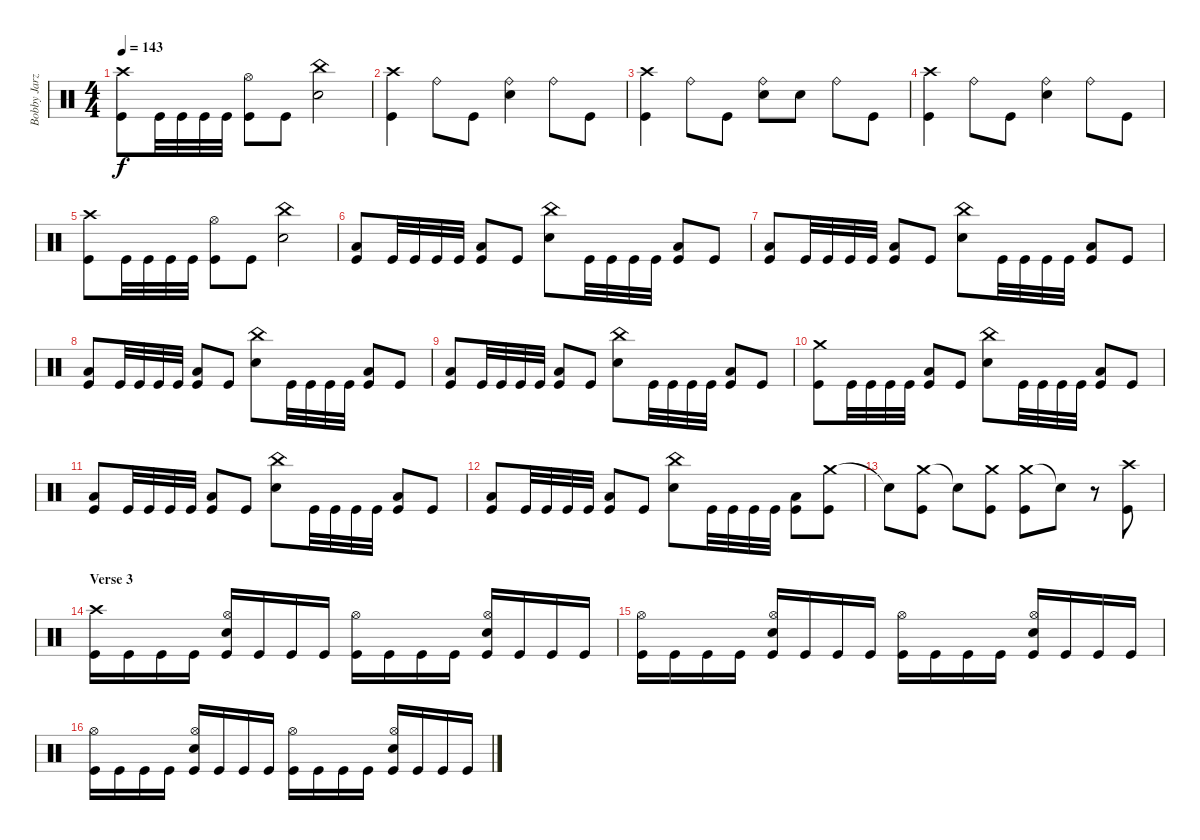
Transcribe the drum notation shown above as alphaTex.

\track ("Bobby Jarzombek" "Bobby Jarz") {instrument percussion}
\staff {score}
\articulation defaults
\ts (4 4)
\tempo 143
\clef neutral
\ks c
("Crash high (hit)" "Kick (hit)").8{dy f} "Kick (hit)".32 "Kick (hit)".32 "Kick (hit)".32 "Kick (hit)".32 ("Hi-Hat (open)" "Kick (hit)").8 "Kick (hit)".8 ("China (hit)" "Electric Snare (hit)").2 |
("Crash high (hit)" "Kick (hit)").4 "Ride (bell)".8 "Kick (hit)".8 ("Ride (bell)" "Electric Snare (hit)").4 "Ride (bell)".8 "Kick (hit)".8 |
("Crash high (hit)" "Kick (hit)").4 "Ride (bell)".8 "Kick (hit)".8 ("Ride (bell)" "Electric Snare (hit)").8 "Electric Snare (hit)".8 "Ride (bell)".8 "Kick (hit)".8 |
("Crash high (hit)" "Kick (hit)").4 "Ride (bell)".8 "Kick (hit)".8 ("Ride (bell)" "Electric Snare (hit)").4 "Ride (bell)".8 "Kick (hit)".8 |
("Crash high (hit)" "Kick (hit)").8 "Kick (hit)".32 "Kick (hit)".32 "Kick (hit)".32 "Kick (hit)".32 ("Hi-Hat (open)" "Kick (hit)").8 "Kick (hit)".8 ("China (hit)" "Electric Snare (hit)").2 |
("Low Tom (hit)" "Kick (hit)").8 "Kick (hit)".32 "Kick (hit)".32 "Kick (hit)".32 "Kick (hit)".32 ("Low Tom (hit)" "Kick (hit)").8 "Kick (hit)".8 ("China (hit)" "Electric Snare (hit)").8 "Kick (hit)".32 "Kick (hit)".32 "Kick (hit)".32 "Kick (hit)".32 ("Low Tom (hit)" "Kick (hit)").8 "Kick (hit)".8 |
("Low Tom (hit)" "Kick (hit)").8 "Kick (hit)".32 "Kick (hit)".32 "Kick (hit)".32 "Kick (hit)".32 ("Low Tom (hit)" "Kick (hit)").8 "Kick (hit)".8 ("China (hit)" "Electric Snare (hit)").8 "Kick (hit)".32 "Kick (hit)".32 "Kick (hit)".32 "Kick (hit)".32 ("Low Tom (hit)" "Kick (hit)").8 "Kick (hit)".8 |
("Low Tom (hit)" "Kick (hit)").8 "Kick (hit)".32 "Kick (hit)".32 "Kick (hit)".32 "Kick (hit)".32 ("Low Tom (hit)" "Kick (hit)").8 "Kick (hit)".8 ("China (hit)" "Electric Snare (hit)").8 "Kick (hit)".32 "Kick (hit)".32 "Kick (hit)".32 "Kick (hit)".32 ("Low Tom (hit)" "Kick (hit)").8 "Kick (hit)".8 |
("Low Tom (hit)" "Kick (hit)").8 "Kick (hit)".32 "Kick (hit)".32 "Kick (hit)".32 "Kick (hit)".32 ("Low Tom (hit)" "Kick (hit)").8 "Kick (hit)".8 ("China (hit)" "Electric Snare (hit)").8 "Kick (hit)".32 "Kick (hit)".32 "Kick (hit)".32 "Kick (hit)".32 ("Low Tom (hit)" "Kick (hit)").8 "Kick (hit)".8 |
("Crash medium (hit)" "Kick (hit)").8 "Kick (hit)".32 "Kick (hit)".32 "Kick (hit)".32 "Kick (hit)".32 ("Low Tom (hit)" "Kick (hit)").8 "Kick (hit)".8 ("China (hit)" "Electric Snare (hit)").8 "Kick (hit)".32 "Kick (hit)".32 "Kick (hit)".32 "Kick (hit)".32 ("Low Tom (hit)" "Kick (hit)").8 "Kick (hit)".8 |
("Low Tom (hit)" "Kick (hit)").8 "Kick (hit)".32 "Kick (hit)".32 "Kick (hit)".32 "Kick (hit)".32 ("Low Tom (hit)" "Kick (hit)").8 "Kick (hit)".8 ("China (hit)" "Electric Snare (hit)").8 "Kick (hit)".32 "Kick (hit)".32 "Kick (hit)".32 "Kick (hit)".32 ("Low Tom (hit)" "Kick (hit)").8 "Kick (hit)".8 |
("Low Tom (hit)" "Kick (hit)").8 "Kick (hit)".32 "Kick (hit)".32 "Kick (hit)".32 "Kick (hit)".32 ("Low Tom (hit)" "Kick (hit)").8 "Kick (hit)".8 ("China (hit)" "Electric Snare (hit)").8 "Kick (hit)".32 "Kick (hit)".32 "Kick (hit)".32 "Kick (hit)".32 ("Low Tom (hit)" "Kick (hit)").8 ("Crash medium (hit)" "Kick (hit)").8 |
"Snare (hit)"{t}.8{volume 0} ("Crash medium (hit)" "Kick (hit)").8{volume 13} "Snare (hit)"{t}.8{volume 0} ("Crash medium (hit)" "Kick (hit)").8{volume 13} ("Crash medium (hit)" "Kick (hit)").8 "Snare (hit)"{t}.8{volume 0} r.8 ("Crash high (hit)" "Kick (hit)").8{volume 14} |
\section ("" "Verse 3")
("Crash high (hit)" "Kick (hit)").16{volume 13} "Kick (hit)".16 "Kick (hit)".16 "Kick (hit)".16 ("Hi-Hat (open)" "Electric Snare (hit)" "Kick (hit)").16 "Kick (hit)".16 "Kick (hit)".16 "Kick (hit)".16 ("Hi-Hat (open)" "Kick (hit)").16 "Kick (hit)".16 "Kick (hit)".16 "Kick (hit)".16 ("Hi-Hat (open)" "Electric Snare (hit)" "Kick (hit)").16 "Kick (hit)".16 "Kick (hit)".16 "Kick (hit)".16 |
("Hi-Hat (open)" "Kick (hit)").16 "Kick (hit)".16 "Kick (hit)".16 "Kick (hit)".16 ("Hi-Hat (open)" "Electric Snare (hit)" "Kick (hit)").16 "Kick (hit)".16 "Kick (hit)".16 "Kick (hit)".16 ("Hi-Hat (open)" "Kick (hit)").16 "Kick (hit)".16 "Kick (hit)".16 "Kick (hit)".16 ("Hi-Hat (open)" "Electric Snare (hit)" "Kick (hit)").16 "Kick (hit)".16 "Kick (hit)".16 "Kick (hit)".16 |
("Hi-Hat (open)" "Kick (hit)").16 "Kick (hit)".16 "Kick (hit)".16 "Kick (hit)".16 ("Hi-Hat (open)" "Electric Snare (hit)" "Kick (hit)").16 "Kick (hit)".16 "Kick (hit)".16 "Kick (hit)".16 ("Hi-Hat (open)" "Kick (hit)").16 "Kick (hit)".16 "Kick (hit)".16 "Kick (hit)".16 ("Hi-Hat (open)" "Electric Snare (hit)" "Kick (hit)").16 "Kick (hit)".16 "Kick (hit)".16 "Kick (hit)".16
